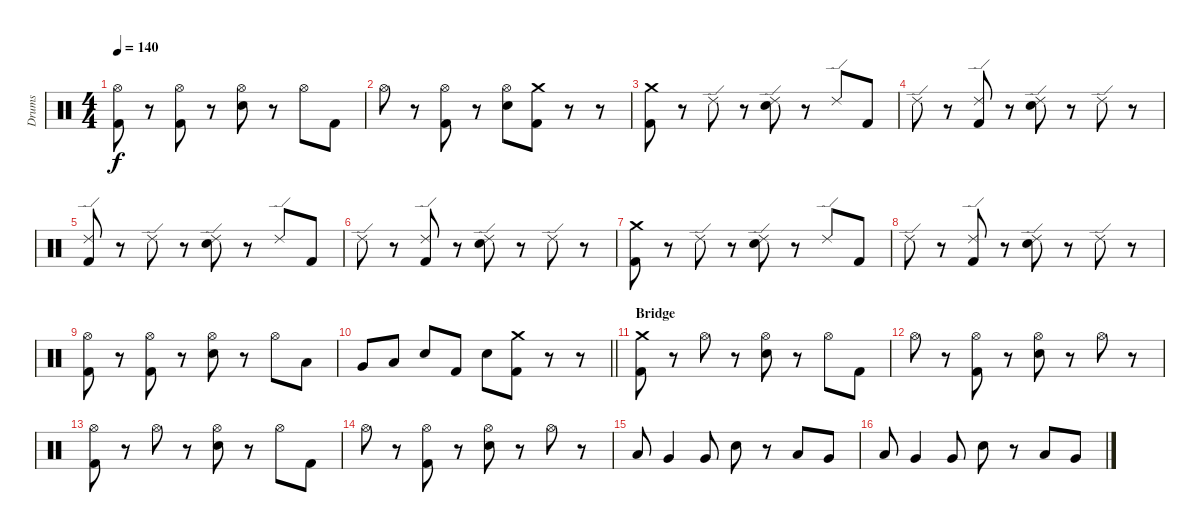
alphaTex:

\track ("Drums" "Drums") {instrument percussion}
\staff {score}
\articulation defaults
\ts (4 4)
\tempo 140
\clef neutral
\ks c
("Hi-Hat (open)" "Kick (hit) 2").8{dy f} r.8 ("Hi-Hat (open)" "Kick (hit) 2").8 r.8 ("Hi-Hat (open)" "Electric Snare (hit)").8 r.8 "Hi-Hat (open)".8 "Kick (hit) 2".8 |
"Hi-Hat (open)".8 r.8 ("Hi-Hat (open)" "Kick (hit) 2").8 r.8 ("Hi-Hat (open)" "Electric Snare (hit)").8 ("Crash medium (hit)" "Kick (hit) 2").8 r.8 r.8 |
("Crash medium (hit)" "Kick (hit) 2").8 r.8 "Ride (edge) 2".8 r.8 ("Ride (edge) 2" "Electric Snare (hit)").8 r.8 "Ride (edge) 2".8 "Kick (hit) 2".8 |
"Ride (edge) 2".8 r.8 ("Ride (edge) 2" "Kick (hit) 2").8 r.8 ("Ride (edge) 2" "Electric Snare (hit)").8 r.8 "Ride (edge) 2".8 r.8 |
("Ride (edge) 2" "Kick (hit) 2").8 r.8 "Ride (edge) 2".8 r.8 ("Ride (edge) 2" "Electric Snare (hit)").8 r.8 "Ride (edge) 2".8 "Kick (hit) 2".8 |
"Ride (edge) 2".8 r.8 ("Ride (edge) 2" "Kick (hit) 2").8 r.8 ("Ride (edge) 2" "Electric Snare (hit)").8 r.8 "Ride (edge) 2".8 r.8 |
("Crash medium (hit)" "Kick (hit) 2").8 r.8 "Ride (edge) 2".8 r.8 ("Ride (edge) 2" "Electric Snare (hit)").8 r.8 "Ride (edge) 2".8 "Kick (hit) 2".8 |
"Ride (edge) 2".8 r.8 ("Ride (edge) 2" "Kick (hit) 2").8 r.8 ("Ride (edge) 2" "Electric Snare (hit)").8 r.8 "Ride (edge) 2".8 r.8 |
("Hi-Hat (open)" "Kick (hit) 2").8 r.8 ("Hi-Hat (open)" "Kick (hit) 2").8 r.8 ("Hi-Hat (open)" "Electric Snare (hit)").8 r.8 "Hi-Hat (open)".8 "Low Tom (hit)".8 |
\barLineRight lightlight "Very Low Tom (hit)".8 "Low Tom (hit)".8 "Electric Snare (hit)".8 "Kick (hit) 2".8 "Electric Snare (hit)".8
("Crash medium (hit)" "Kick (hit) 2").8 r.8 r.8 |
\section ("" "Bridge")
("Crash medium (hit)" "Kick (hit) 2").8 r.8 "Hi-Hat (open)".8 r.8 ("Hi-Hat (open)" "Electric Snare (hit)").8 r.8 "Hi-Hat (open)".8 "Kick (hit) 2".8 |
"Hi-Hat (open)".8 r.8 ("Hi-Hat (open)" "Kick (hit) 2").8 r.8 ("Hi-Hat (open)" "Electric Snare (hit)").8 r.8 "Hi-Hat (open)".8 r.8 |
("Hi-Hat (open)" "Kick (hit) 2").8 r.8 "Hi-Hat (open)".8 r.8 ("Hi-Hat (open)" "Electric Snare (hit)").8 r.8 "Hi-Hat (open)".8 "Kick (hit) 2".8 |
"Hi-Hat (open)".8 r.8 ("Hi-Hat (open)" "Kick (hit) 2").8 r.8 ("Hi-Hat (open)" "Electric Snare (hit)").8 r.8 "Hi-Hat (open)".8 r.8 |
"Low Tom (hit)".8 "Very Low Tom (hit)".4 "Very Low Tom (hit)".8 "Electric Snare (hit)".8 r.8 "Low Tom (hit)".8 "Very Low Tom (hit)".8 |
"Low Tom (hit)".8 "Very Low Tom (hit)".4 "Very Low Tom (hit)".8 "Electric Snare (hit)".8 r.8 "Low Tom (hit)".8 "Very Low Tom (hit)".8
